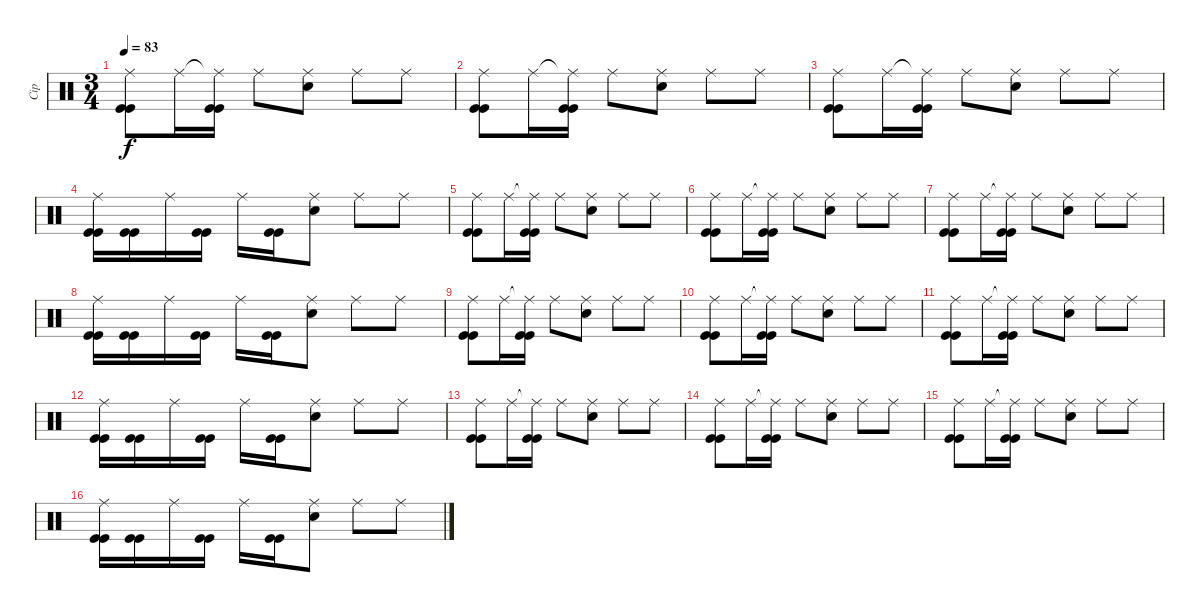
\track ("Cip" "Cip") {instrument percussion}
\staff {score}
\articulation defaults
\ts (3 4)
\tempo 83
\clef neutral
\ks c
("Ride (middle)" "Kick (hit)" "Kick (hit)").8{dy f} "Ride (middle)".16 ("Ride (middle)"{t} "Kick (hit)" "Kick (hit)").16 "Ride (middle)".8 ("Ride (middle)" "Electric Snare (hit)").8 "Ride (middle)".8 "Ride (middle)".8 |
("Ride (middle)" "Kick (hit)" "Kick (hit)").8 "Ride (middle)".16 ("Ride (middle)"{t} "Kick (hit)" "Kick (hit)").16 "Ride (middle)".8 ("Ride (middle)" "Electric Snare (hit)").8 "Ride (middle)".8 "Ride (middle)".8 |
("Ride (middle)" "Kick (hit)" "Kick (hit)").8 "Ride (middle)".16 ("Ride (middle)"{t} "Kick (hit)" "Kick (hit)").16 "Ride (middle)".8 ("Ride (middle)" "Electric Snare (hit)").8 "Ride (middle)".8 "Ride (middle)".8 |
("Ride (middle)" "Kick (hit)" "Kick (hit)").16 ("Kick (hit)" "Kick (hit)").16 "Ride (middle)".16 ("Kick (hit)" "Kick (hit)").16 "Ride (middle)".16 ("Kick (hit)" "Kick (hit)").16 ("Ride (middle)" "Electric Snare (hit)").8 "Ride (middle)".8 "Ride (middle)".8 |
("Ride (middle)" "Kick (hit)" "Kick (hit)").8 "Ride (middle)".16 ("Ride (middle)"{t} "Kick (hit)" "Kick (hit)").16 "Ride (middle)".8 ("Ride (middle)" "Electric Snare (hit)").8 "Ride (middle)".8 "Ride (middle)".8 |
("Ride (middle)" "Kick (hit)" "Kick (hit)").8 "Ride (middle)".16 ("Ride (middle)"{t} "Kick (hit)" "Kick (hit)").16 "Ride (middle)".8 ("Ride (middle)" "Electric Snare (hit)").8 "Ride (middle)".8 "Ride (middle)".8 |
("Ride (middle)" "Kick (hit)" "Kick (hit)").8 "Ride (middle)".16 ("Ride (middle)"{t} "Kick (hit)" "Kick (hit)").16 "Ride (middle)".8 ("Ride (middle)" "Electric Snare (hit)").8 "Ride (middle)".8 "Ride (middle)".8 |
("Ride (middle)" "Kick (hit)" "Kick (hit)").16 ("Kick (hit)" "Kick (hit)").16 "Ride (middle)".16 ("Kick (hit)" "Kick (hit)").16 "Ride (middle)".16 ("Kick (hit)" "Kick (hit)").16 ("Ride (middle)" "Electric Snare (hit)").8 "Ride (middle)".8 "Ride (middle)".8 |
("Ride (middle)" "Kick (hit)" "Kick (hit)").8 "Ride (middle)".16 ("Ride (middle)"{t} "Kick (hit)" "Kick (hit)").16 "Ride (middle)".8 ("Ride (middle)" "Electric Snare (hit)").8 "Ride (middle)".8 "Ride (middle)".8 |
("Ride (middle)" "Kick (hit)" "Kick (hit)").8 "Ride (middle)".16 ("Ride (middle)"{t} "Kick (hit)" "Kick (hit)").16 "Ride (middle)".8 ("Ride (middle)" "Electric Snare (hit)").8 "Ride (middle)".8 "Ride (middle)".8 |
("Ride (middle)" "Kick (hit)" "Kick (hit)").8 "Ride (middle)".16 ("Ride (middle)"{t} "Kick (hit)" "Kick (hit)").16 "Ride (middle)".8 ("Ride (middle)" "Electric Snare (hit)").8 "Ride (middle)".8 "Ride (middle)".8 |
("Ride (middle)" "Kick (hit)" "Kick (hit)").16 ("Kick (hit)" "Kick (hit)").16 "Ride (middle)".16 ("Kick (hit)" "Kick (hit)").16 "Ride (middle)".16 ("Kick (hit)" "Kick (hit)").16 ("Ride (middle)" "Electric Snare (hit)").8 "Ride (middle)".8 "Ride (middle)".8 |
("Ride (middle)" "Kick (hit)" "Kick (hit)").8 "Ride (middle)".16 ("Ride (middle)"{t} "Kick (hit)" "Kick (hit)").16 "Ride (middle)".8 ("Ride (middle)" "Electric Snare (hit)").8 "Ride (middle)".8 "Ride (middle)".8 |
("Ride (middle)" "Kick (hit)" "Kick (hit)").8 "Ride (middle)".16 ("Ride (middle)"{t} "Kick (hit)" "Kick (hit)").16 "Ride (middle)".8 ("Ride (middle)" "Electric Snare (hit)").8 "Ride (middle)".8 "Ride (middle)".8 |
("Ride (middle)" "Kick (hit)" "Kick (hit)").8 "Ride (middle)".16 ("Ride (middle)"{t} "Kick (hit)" "Kick (hit)").16 "Ride (middle)".8 ("Ride (middle)" "Electric Snare (hit)").8 "Ride (middle)".8 "Ride (middle)".8 |
("Ride (middle)" "Kick (hit)" "Kick (hit)").16 ("Kick (hit)" "Kick (hit)").16 "Ride (middle)".16 ("Kick (hit)" "Kick (hit)").16 "Ride (middle)".16 ("Kick (hit)" "Kick (hit)").16 ("Ride (middle)" "Electric Snare (hit)").8 "Ride (middle)".8 "Ride (middle)".8
